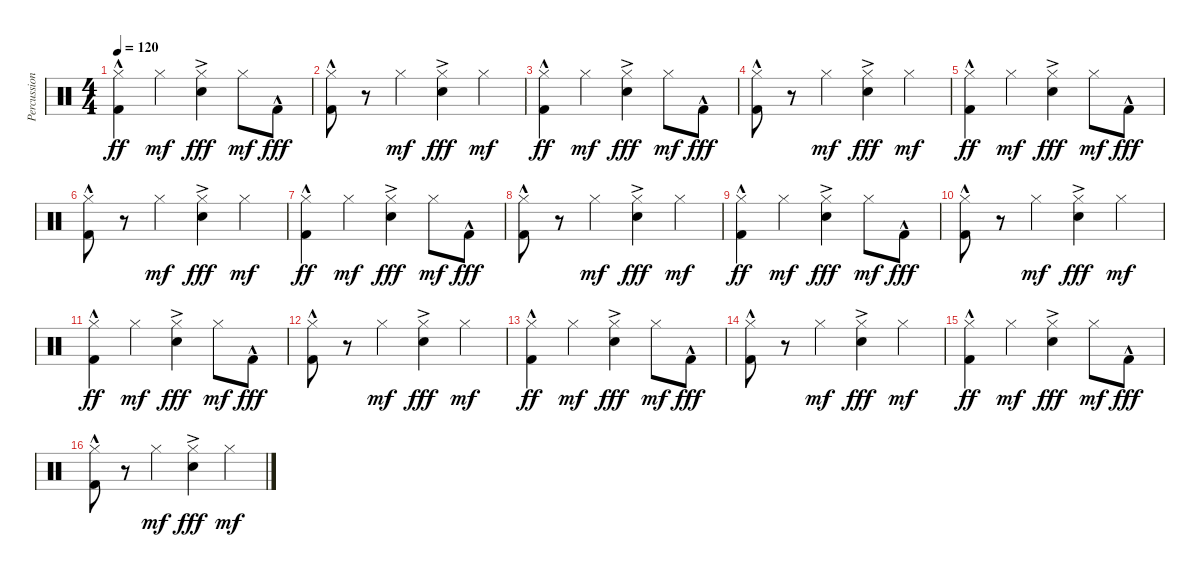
\track ("Percussion" "Percussion") {instrument percussion}
\staff {score}
\articulation defaults
\ts (4 4)
\tempo 120
\clef neutral
\ks c
("Hi-Hat (closed)" "Kick (hit) 2"{hac}).4{dy ff} "Hi-Hat (closed)".4{dy mf} ("Hi-Hat (closed)" "Electric Snare (hit)"{ac}).4{dy fff} "Hi-Hat (closed)".8{dy mf} "Kick (hit) 2"{hac}.8{dy fff} |
("Hi-Hat (closed)" "Kick (hit) 2"{hac}).8 r.8 "Hi-Hat (closed)".4{dy mf} ("Hi-Hat (closed)" "Electric Snare (hit)"{ac}).4{dy fff} "Hi-Hat (closed)".4{dy mf} |
("Hi-Hat (closed)" "Kick (hit) 2"{hac}).4{dy ff} "Hi-Hat (closed)".4{dy mf} ("Hi-Hat (closed)" "Electric Snare (hit)"{ac}).4{dy fff} "Hi-Hat (closed)".8{dy mf} "Kick (hit) 2"{hac}.8{dy fff} |
("Hi-Hat (closed)" "Kick (hit) 2"{hac}).8 r.8 "Hi-Hat (closed)".4{dy mf} ("Hi-Hat (closed)" "Electric Snare (hit)"{ac}).4{dy fff} "Hi-Hat (closed)".4{dy mf} |
("Hi-Hat (closed)" "Kick (hit) 2"{hac}).4{dy ff} "Hi-Hat (closed)".4{dy mf} ("Hi-Hat (closed)" "Electric Snare (hit)"{ac}).4{dy fff} "Hi-Hat (closed)".8{dy mf} "Kick (hit) 2"{hac}.8{dy fff} |
("Hi-Hat (closed)" "Kick (hit) 2"{hac}).8 r.8 "Hi-Hat (closed)".4{dy mf} ("Hi-Hat (closed)" "Electric Snare (hit)"{ac}).4{dy fff} "Hi-Hat (closed)".4{dy mf} |
("Hi-Hat (closed)" "Kick (hit) 2"{hac}).4{dy ff} "Hi-Hat (closed)".4{dy mf} ("Hi-Hat (closed)" "Electric Snare (hit)"{ac}).4{dy fff} "Hi-Hat (closed)".8{dy mf} "Kick (hit) 2"{hac}.8{dy fff} |
("Hi-Hat (closed)" "Kick (hit) 2"{hac}).8 r.8 "Hi-Hat (closed)".4{dy mf} ("Hi-Hat (closed)" "Electric Snare (hit)"{ac}).4{dy fff} "Hi-Hat (closed)".4{dy mf} |
("Hi-Hat (closed)" "Kick (hit) 2"{hac}).4{dy ff} "Hi-Hat (closed)".4{dy mf} ("Hi-Hat (closed)" "Electric Snare (hit)"{ac}).4{dy fff} "Hi-Hat (closed)".8{dy mf} "Kick (hit) 2"{hac}.8{dy fff} |
("Hi-Hat (closed)" "Kick (hit) 2"{hac}).8 r.8 "Hi-Hat (closed)".4{dy mf} ("Hi-Hat (closed)" "Electric Snare (hit)"{ac}).4{dy fff} "Hi-Hat (closed)".4{dy mf} |
("Hi-Hat (closed)" "Kick (hit) 2"{hac}).4{dy ff} "Hi-Hat (closed)".4{dy mf} ("Hi-Hat (closed)" "Electric Snare (hit)"{ac}).4{dy fff} "Hi-Hat (closed)".8{dy mf} "Kick (hit) 2"{hac}.8{dy fff} |
("Hi-Hat (closed)" "Kick (hit) 2"{hac}).8 r.8 "Hi-Hat (closed)".4{dy mf} ("Hi-Hat (closed)" "Electric Snare (hit)"{ac}).4{dy fff} "Hi-Hat (closed)".4{dy mf} |
("Hi-Hat (closed)" "Kick (hit) 2"{hac}).4{dy ff} "Hi-Hat (closed)".4{dy mf} ("Hi-Hat (closed)" "Electric Snare (hit)"{ac}).4{dy fff} "Hi-Hat (closed)".8{dy mf} "Kick (hit) 2"{hac}.8{dy fff} |
("Hi-Hat (closed)" "Kick (hit) 2"{hac}).8 r.8 "Hi-Hat (closed)".4{dy mf} ("Hi-Hat (closed)" "Electric Snare (hit)"{ac}).4{dy fff} "Hi-Hat (closed)".4{dy mf} |
("Hi-Hat (closed)" "Kick (hit) 2"{hac}).4{dy ff} "Hi-Hat (closed)".4{dy mf} ("Hi-Hat (closed)" "Electric Snare (hit)"{ac}).4{dy fff} "Hi-Hat (closed)".8{dy mf} "Kick (hit) 2"{hac}.8{dy fff} |
("Hi-Hat (closed)" "Kick (hit) 2"{hac}).8 r.8 "Hi-Hat (closed)".4{dy mf} ("Hi-Hat (closed)" "Electric Snare (hit)"{ac}).4{dy fff} "Hi-Hat (closed)".4{dy mf}
